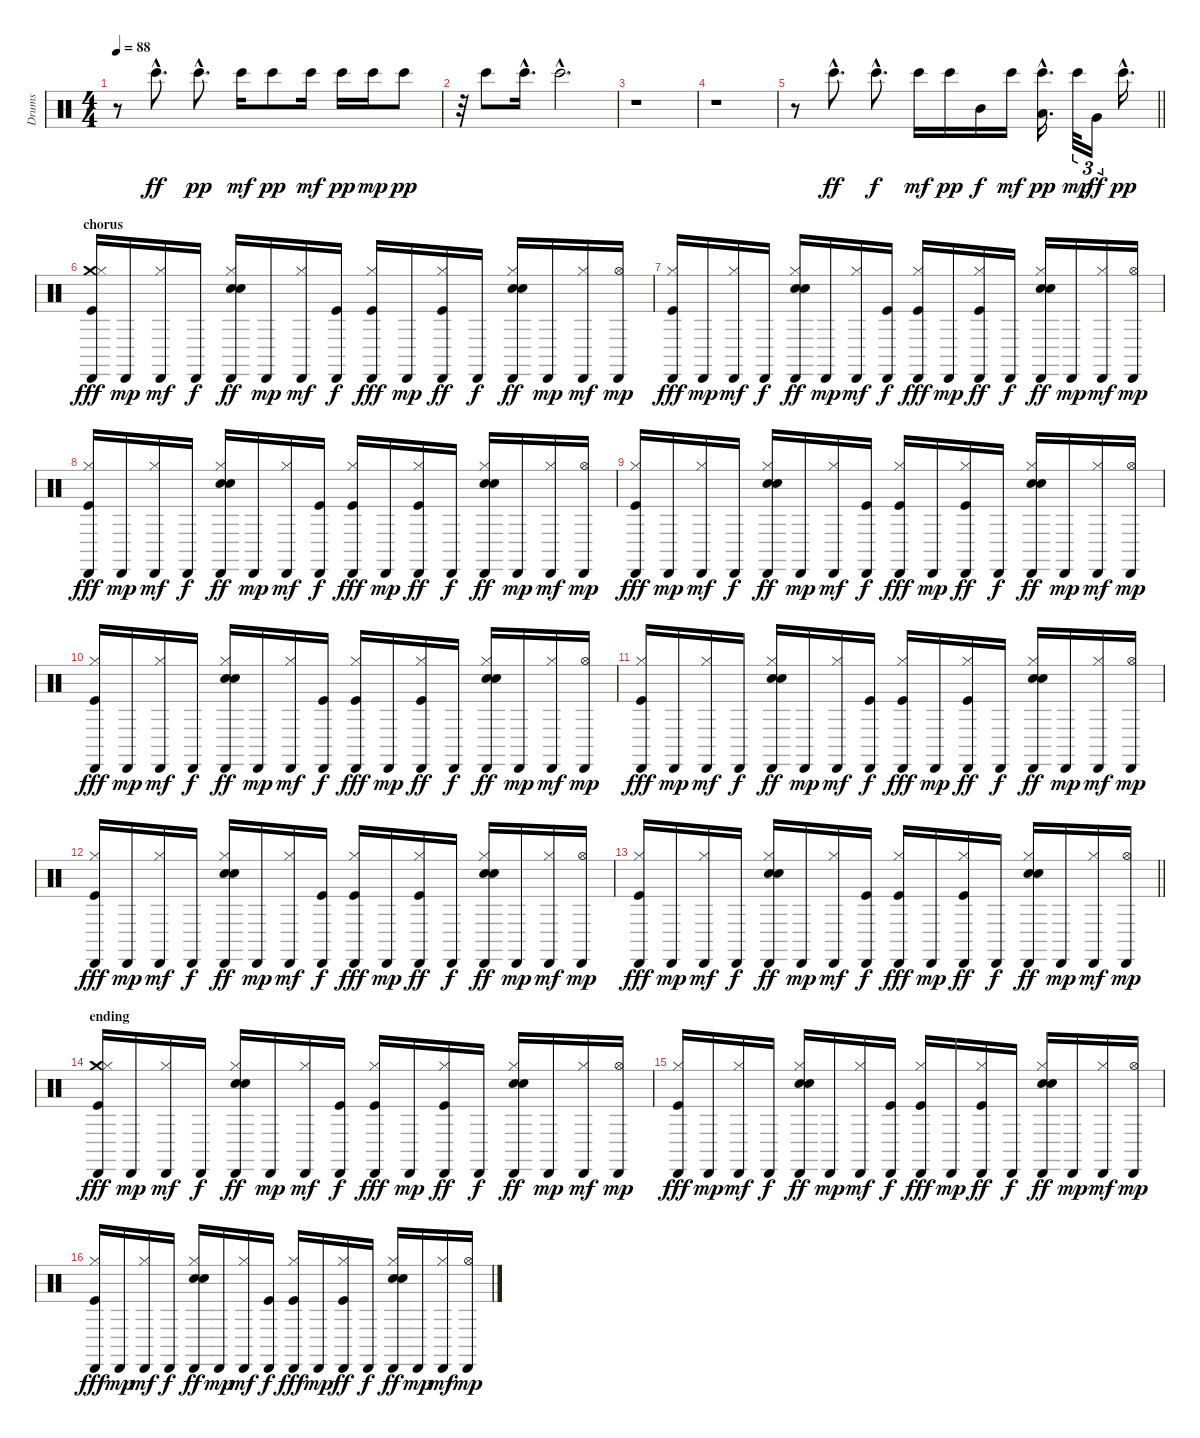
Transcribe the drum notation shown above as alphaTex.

\track ("Drums" "Drums") {instrument percussion}
\staff {score}
\articulation defaults
\ts (4 4)
\tempo 88
\clef neutral
\ks c
r.8{dy f} "Bongo High (hit)"{hac}.8{d dy ff} "Bongo High (hit)"{hac}.8{d dy pp} "Bongo High (hit)".16{dy mf} "Bongo High (hit)".8{dy pp} "Bongo High (hit)".16{dy mf} "Bongo High (hit)".16{dy pp} "Bongo High (hit)".16{dy mp} "Bongo High (hit)".8{dy pp} |
r.32 "Bongo High (hit)".8 "Bongo High (hit)"{hac}.16{d} "Bongo High (hit)"{hac}.2{d} |
r.1 |
r.1 |
\barLineRight lightlight
r.8 "Bongo High (hit)"{hac}.8{d dy ff} "Bongo High (hit)"{hac}.8{d dy f} "Bongo High (hit)".16{dy mf} "Bongo High (hit)".16{dy pp} "Mid Tom (hit)".16{dy f} "Bongo High (hit)".16{dy mf} ("Low Tom (hit)"{hac} "Bongo High (hit)"{hac}).16{d dy pp} "Bongo High (hit)".32{tu (3 2) dy mp} "Very Low Tom (hit)".16{tu (3 2) dy ff} "Bongo High (hit)"{hac}.16{d dy pp} |
\section ("" "chorus")
("Cabasa (hit)" "Crash medium (hit)" "Hi-Hat (closed)" "Kick (hit)").16{dy fff} "Cabasa (hit)".16{dy mp} ("Cabasa (hit)" "Hi-Hat (closed)").16{dy mf} "Cabasa (hit)".16{dy f} ("Cabasa (hit)" "Electric Snare (hit)" "Snare (hit) 2" "Hi-Hat (closed)").16{dy ff} "Cabasa (hit)".16{dy mp} ("Cabasa (hit)" "Hi-Hat (closed)").16{dy mf} ("Cabasa (hit)" "Kick (hit)").16{dy f} ("Cabasa (hit)" "Hi-Hat (closed)" "Kick (hit)").16{dy fff} "Cabasa (hit)".16{dy mp} ("Cabasa (hit)" "Hi-Hat (closed)" "Kick (hit)").16{dy ff} "Cabasa (hit)".16{dy f} ("Cabasa (hit)" "Electric Snare (hit)" "Snare (hit) 2" "Hi-Hat (closed)").16{dy ff} "Cabasa (hit)".16{dy mp} ("Cabasa (hit)" "Hi-Hat (closed)").16{dy mf} ("Cabasa (hit)" "Hi-Hat (open)").16{dy mp} |
("Cabasa (hit)" "Hi-Hat (closed)" "Kick (hit)").16{dy fff} "Cabasa (hit)".16{dy mp} ("Cabasa (hit)" "Hi-Hat (closed)").16{dy mf} "Cabasa (hit)".16{dy f} ("Cabasa (hit)" "Electric Snare (hit)" "Snare (hit) 2" "Hi-Hat (closed)").16{dy ff} "Cabasa (hit)".16{dy mp} ("Cabasa (hit)" "Hi-Hat (closed)").16{dy mf} ("Cabasa (hit)" "Kick (hit)").16{dy f} ("Cabasa (hit)" "Hi-Hat (closed)" "Kick (hit)").16{dy fff} "Cabasa (hit)".16{dy mp} ("Cabasa (hit)" "Hi-Hat (closed)" "Kick (hit)").16{dy ff} "Cabasa (hit)".16{dy f} ("Cabasa (hit)" "Electric Snare (hit)" "Snare (hit) 2" "Hi-Hat (closed)").16{dy ff} "Cabasa (hit)".16{dy mp} ("Cabasa (hit)" "Hi-Hat (closed)").16{dy mf} ("Cabasa (hit)" "Hi-Hat (open)").16{dy mp} |
("Cabasa (hit)" "Hi-Hat (closed)" "Kick (hit)").16{dy fff} "Cabasa (hit)".16{dy mp} ("Cabasa (hit)" "Hi-Hat (closed)").16{dy mf} "Cabasa (hit)".16{dy f} ("Cabasa (hit)" "Electric Snare (hit)" "Snare (hit) 2" "Hi-Hat (closed)").16{dy ff} "Cabasa (hit)".16{dy mp} ("Cabasa (hit)" "Hi-Hat (closed)").16{dy mf} ("Cabasa (hit)" "Kick (hit)").16{dy f} ("Cabasa (hit)" "Hi-Hat (closed)" "Kick (hit)").16{dy fff} "Cabasa (hit)".16{dy mp} ("Cabasa (hit)" "Hi-Hat (closed)" "Kick (hit)").16{dy ff} "Cabasa (hit)".16{dy f} ("Cabasa (hit)" "Electric Snare (hit)" "Snare (hit) 2" "Hi-Hat (closed)").16{dy ff} "Cabasa (hit)".16{dy mp} ("Cabasa (hit)" "Hi-Hat (closed)").16{dy mf} ("Cabasa (hit)" "Hi-Hat (open)").16{dy mp} |
("Cabasa (hit)" "Hi-Hat (closed)" "Kick (hit)").16{dy fff} "Cabasa (hit)".16{dy mp} ("Cabasa (hit)" "Hi-Hat (closed)").16{dy mf} "Cabasa (hit)".16{dy f} ("Cabasa (hit)" "Electric Snare (hit)" "Snare (hit) 2" "Hi-Hat (closed)").16{dy ff} "Cabasa (hit)".16{dy mp} ("Cabasa (hit)" "Hi-Hat (closed)").16{dy mf} ("Cabasa (hit)" "Kick (hit)").16{dy f} ("Cabasa (hit)" "Hi-Hat (closed)" "Kick (hit)").16{dy fff} "Cabasa (hit)".16{dy mp} ("Cabasa (hit)" "Hi-Hat (closed)" "Kick (hit)").16{dy ff} "Cabasa (hit)".16{dy f} ("Cabasa (hit)" "Electric Snare (hit)" "Snare (hit) 2" "Hi-Hat (closed)").16{dy ff} "Cabasa (hit)".16{dy mp} ("Cabasa (hit)" "Hi-Hat (closed)").16{dy mf} ("Cabasa (hit)" "Hi-Hat (open)").16{dy mp} |
("Cabasa (hit)" "Hi-Hat (closed)" "Kick (hit)").16{dy fff} "Cabasa (hit)".16{dy mp} ("Cabasa (hit)" "Hi-Hat (closed)").16{dy mf} "Cabasa (hit)".16{dy f} ("Cabasa (hit)" "Electric Snare (hit)" "Snare (hit) 2" "Hi-Hat (closed)").16{dy ff} "Cabasa (hit)".16{dy mp} ("Cabasa (hit)" "Hi-Hat (closed)").16{dy mf} ("Cabasa (hit)" "Kick (hit)").16{dy f} ("Cabasa (hit)" "Hi-Hat (closed)" "Kick (hit)").16{dy fff} "Cabasa (hit)".16{dy mp} ("Cabasa (hit)" "Hi-Hat (closed)" "Kick (hit)").16{dy ff} "Cabasa (hit)".16{dy f} ("Cabasa (hit)" "Electric Snare (hit)" "Snare (hit) 2" "Hi-Hat (closed)").16{dy ff} "Cabasa (hit)".16{dy mp} ("Cabasa (hit)" "Hi-Hat (closed)").16{dy mf} ("Cabasa (hit)" "Hi-Hat (open)").16{dy mp} |
("Cabasa (hit)" "Hi-Hat (closed)" "Kick (hit)").16{dy fff} "Cabasa (hit)".16{dy mp} ("Cabasa (hit)" "Hi-Hat (closed)").16{dy mf} "Cabasa (hit)".16{dy f} ("Cabasa (hit)" "Electric Snare (hit)" "Snare (hit) 2" "Hi-Hat (closed)").16{dy ff} "Cabasa (hit)".16{dy mp} ("Cabasa (hit)" "Hi-Hat (closed)").16{dy mf} ("Cabasa (hit)" "Kick (hit)").16{dy f} ("Cabasa (hit)" "Hi-Hat (closed)" "Kick (hit)").16{dy fff} "Cabasa (hit)".16{dy mp} ("Cabasa (hit)" "Hi-Hat (closed)" "Kick (hit)").16{dy ff} "Cabasa (hit)".16{dy f} ("Cabasa (hit)" "Electric Snare (hit)" "Snare (hit) 2" "Hi-Hat (closed)").16{dy ff} "Cabasa (hit)".16{dy mp} ("Cabasa (hit)" "Hi-Hat (closed)").16{dy mf} ("Cabasa (hit)" "Hi-Hat (open)").16{dy mp} |
("Cabasa (hit)" "Hi-Hat (closed)" "Kick (hit)").16{dy fff} "Cabasa (hit)".16{dy mp} ("Cabasa (hit)" "Hi-Hat (closed)").16{dy mf} "Cabasa (hit)".16{dy f} ("Cabasa (hit)" "Electric Snare (hit)" "Snare (hit) 2" "Hi-Hat (closed)").16{dy ff} "Cabasa (hit)".16{dy mp} ("Cabasa (hit)" "Hi-Hat (closed)").16{dy mf} ("Cabasa (hit)" "Kick (hit)").16{dy f} ("Cabasa (hit)" "Hi-Hat (closed)" "Kick (hit)").16{dy fff} "Cabasa (hit)".16{dy mp} ("Cabasa (hit)" "Hi-Hat (closed)" "Kick (hit)").16{dy ff} "Cabasa (hit)".16{dy f} ("Cabasa (hit)" "Electric Snare (hit)" "Snare (hit) 2" "Hi-Hat (closed)").16{dy ff} "Cabasa (hit)".16{dy mp} ("Cabasa (hit)" "Hi-Hat (closed)").16{dy mf} ("Cabasa (hit)" "Hi-Hat (open)").16{dy mp} |
\barLineRight lightlight
("Cabasa (hit)" "Hi-Hat (closed)" "Kick (hit)").16{dy fff} "Cabasa (hit)".16{dy mp} ("Cabasa (hit)" "Hi-Hat (closed)").16{dy mf} "Cabasa (hit)".16{dy f} ("Cabasa (hit)" "Electric Snare (hit)" "Snare (hit) 2" "Hi-Hat (closed)").16{dy ff} "Cabasa (hit)".16{dy mp} ("Cabasa (hit)" "Hi-Hat (closed)").16{dy mf} ("Cabasa (hit)" "Kick (hit)").16{dy f} ("Cabasa (hit)" "Hi-Hat (closed)" "Kick (hit)").16{dy fff} "Cabasa (hit)".16{dy mp} ("Cabasa (hit)" "Hi-Hat (closed)" "Kick (hit)").16{dy ff} "Cabasa (hit)".16{dy f} ("Cabasa (hit)" "Electric Snare (hit)" "Snare (hit) 2" "Hi-Hat (closed)").16{dy ff} "Cabasa (hit)".16{dy mp} ("Cabasa (hit)" "Hi-Hat (closed)").16{dy mf} ("Cabasa (hit)" "Hi-Hat (open)").16{dy mp} |
\section ("" "ending")
("Cabasa (hit)" "Crash medium (hit)" "Hi-Hat (closed)" "Kick (hit)").16{dy fff} "Cabasa (hit)".16{dy mp} ("Cabasa (hit)" "Hi-Hat (closed)").16{dy mf} "Cabasa (hit)".16{dy f} ("Cabasa (hit)" "Electric Snare (hit)" "Snare (hit) 2" "Hi-Hat (closed)").16{dy ff} "Cabasa (hit)".16{dy mp} ("Cabasa (hit)" "Hi-Hat (closed)").16{dy mf} ("Cabasa (hit)" "Kick (hit)").16{dy f} ("Cabasa (hit)" "Hi-Hat (closed)" "Kick (hit)").16{dy fff} "Cabasa (hit)".16{dy mp} ("Cabasa (hit)" "Hi-Hat (closed)" "Kick (hit)").16{dy ff} "Cabasa (hit)".16{dy f} ("Cabasa (hit)" "Electric Snare (hit)" "Snare (hit) 2" "Hi-Hat (closed)").16{dy ff} "Cabasa (hit)".16{dy mp} ("Cabasa (hit)" "Hi-Hat (closed)").16{dy mf} ("Cabasa (hit)" "Hi-Hat (open)").16{dy mp} |
("Cabasa (hit)" "Hi-Hat (closed)" "Kick (hit)").16{dy fff} "Cabasa (hit)".16{dy mp} ("Cabasa (hit)" "Hi-Hat (closed)").16{dy mf} "Cabasa (hit)".16{dy f} ("Cabasa (hit)" "Electric Snare (hit)" "Snare (hit) 2" "Hi-Hat (closed)").16{dy ff} "Cabasa (hit)".16{dy mp} ("Cabasa (hit)" "Hi-Hat (closed)").16{dy mf} ("Cabasa (hit)" "Kick (hit)").16{dy f} ("Cabasa (hit)" "Hi-Hat (closed)" "Kick (hit)").16{dy fff} "Cabasa (hit)".16{dy mp} ("Cabasa (hit)" "Hi-Hat (closed)" "Kick (hit)").16{dy ff} "Cabasa (hit)".16{dy f} ("Cabasa (hit)" "Electric Snare (hit)" "Snare (hit) 2" "Hi-Hat (closed)").16{dy ff} "Cabasa (hit)".16{dy mp} ("Cabasa (hit)" "Hi-Hat (closed)").16{dy mf} ("Cabasa (hit)" "Hi-Hat (open)").16{dy mp} |
("Cabasa (hit)" "Hi-Hat (closed)" "Kick (hit)").16{dy fff} "Cabasa (hit)".16{dy mp} ("Cabasa (hit)" "Hi-Hat (closed)").16{dy mf} "Cabasa (hit)".16{dy f} ("Cabasa (hit)" "Electric Snare (hit)" "Snare (hit) 2" "Hi-Hat (closed)").16{dy ff} "Cabasa (hit)".16{dy mp} ("Cabasa (hit)" "Hi-Hat (closed)").16{dy mf} ("Cabasa (hit)" "Kick (hit)").16{dy f} ("Cabasa (hit)" "Hi-Hat (closed)" "Kick (hit)").16{dy fff} "Cabasa (hit)".16{dy mp} ("Cabasa (hit)" "Hi-Hat (closed)" "Kick (hit)").16{dy ff} "Cabasa (hit)".16{dy f} ("Cabasa (hit)" "Electric Snare (hit)" "Snare (hit) 2" "Hi-Hat (closed)").16{dy ff} "Cabasa (hit)".16{dy mp} ("Cabasa (hit)" "Hi-Hat (closed)").16{dy mf} ("Cabasa (hit)" "Hi-Hat (open)").16{dy mp}
